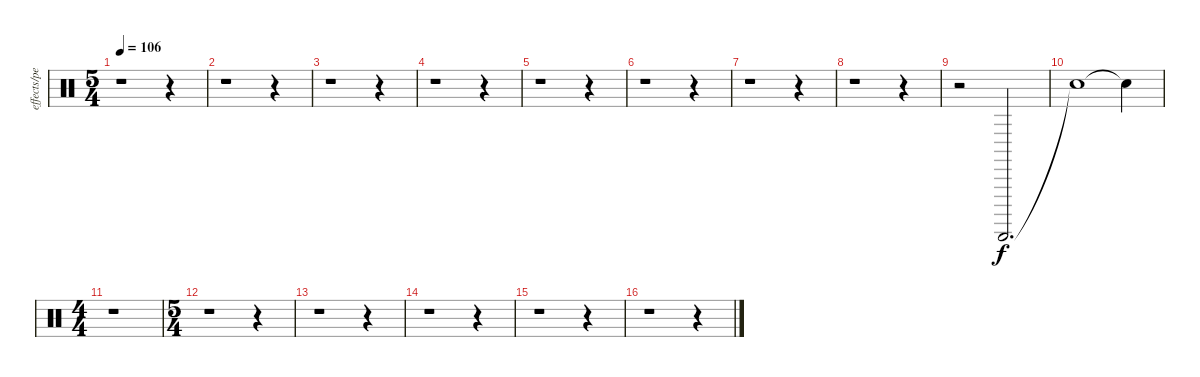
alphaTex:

\track ("effects/percussion" "effects/pe") {instrument percussion}
\staff {score}
\articulation defaults
\ts (5 4)
\tempo 106
\clef neutral
\ks c
r.1{dy f} r.4 |
r.1 r.4 |
r.1 r.4 |
r.1 r.4 |
r.1 r.4 |
r.1 r.4 |
r.1 r.4 |
r.1 r.4 |
r.2 "Guiro (scrap-return)".2{d} |
"Snare (hit)"{t}.1 "Snare (hit)"{t}.4 |
\ts (4 4)
r.1 |
\ts (5 4)
r.1 r.4 |
r.1 r.4 |
r.1 r.4 |
r.1 r.4 |
r.1 r.4
